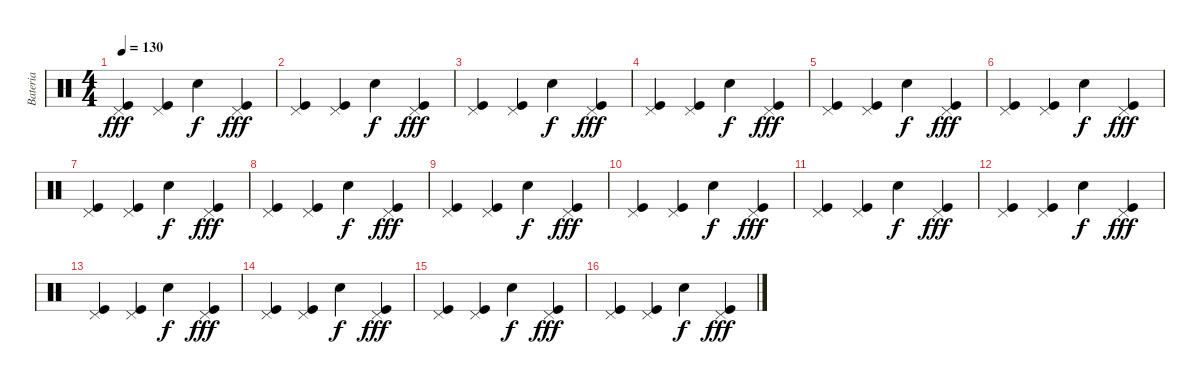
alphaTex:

\track ("Bateria" "Bateria") {instrument percussion}
\staff {score}
\articulation defaults
\ts (4 4)
\tempo 130
\clef neutral
\ks c
("Pedal Hi-Hat (hit)" "Kick (hit)").4{dy fff} ("Pedal Hi-Hat (hit)" "Kick (hit)").4 "Snare (hit) 2".4{dy f} ("Pedal Hi-Hat (hit)" "Kick (hit)").4{dy fff} |
("Pedal Hi-Hat (hit)" "Kick (hit)").4 ("Pedal Hi-Hat (hit)" "Kick (hit)").4 "Snare (hit) 2".4{dy f} ("Pedal Hi-Hat (hit)" "Kick (hit)").4{dy fff} |
("Pedal Hi-Hat (hit)" "Kick (hit)").4 ("Pedal Hi-Hat (hit)" "Kick (hit)").4 "Snare (hit) 2".4{dy f} ("Pedal Hi-Hat (hit)" "Kick (hit)").4{dy fff} |
("Pedal Hi-Hat (hit)" "Kick (hit)").4 ("Pedal Hi-Hat (hit)" "Kick (hit)").4 "Snare (hit) 2".4{dy f} ("Pedal Hi-Hat (hit)" "Kick (hit)").4{dy fff} |
("Pedal Hi-Hat (hit)" "Kick (hit)").4 ("Pedal Hi-Hat (hit)" "Kick (hit)").4 "Snare (hit) 2".4{dy f} ("Pedal Hi-Hat (hit)" "Kick (hit)").4{dy fff} |
("Pedal Hi-Hat (hit)" "Kick (hit)").4 ("Pedal Hi-Hat (hit)" "Kick (hit)").4 "Snare (hit) 2".4{dy f} ("Pedal Hi-Hat (hit)" "Kick (hit)").4{dy fff} |
("Pedal Hi-Hat (hit)" "Kick (hit)").4 ("Pedal Hi-Hat (hit)" "Kick (hit)").4 "Snare (hit) 2".4{dy f} ("Pedal Hi-Hat (hit)" "Kick (hit)").4{dy fff} |
("Pedal Hi-Hat (hit)" "Kick (hit)").4 ("Pedal Hi-Hat (hit)" "Kick (hit)").4 "Snare (hit) 2".4{dy f} ("Pedal Hi-Hat (hit)" "Kick (hit)").4{dy fff} |
("Pedal Hi-Hat (hit)" "Kick (hit)").4 ("Pedal Hi-Hat (hit)" "Kick (hit)").4 "Snare (hit) 2".4{dy f} ("Pedal Hi-Hat (hit)" "Kick (hit)").4{dy fff} |
("Pedal Hi-Hat (hit)" "Kick (hit)").4 ("Pedal Hi-Hat (hit)" "Kick (hit)").4 "Snare (hit) 2".4{dy f} ("Pedal Hi-Hat (hit)" "Kick (hit)").4{dy fff} |
("Pedal Hi-Hat (hit)" "Kick (hit)").4 ("Pedal Hi-Hat (hit)" "Kick (hit)").4 "Snare (hit) 2".4{dy f} ("Pedal Hi-Hat (hit)" "Kick (hit)").4{dy fff} |
("Pedal Hi-Hat (hit)" "Kick (hit)").4 ("Pedal Hi-Hat (hit)" "Kick (hit)").4 "Snare (hit) 2".4{dy f} ("Pedal Hi-Hat (hit)" "Kick (hit)").4{dy fff} |
("Pedal Hi-Hat (hit)" "Kick (hit)").4 ("Pedal Hi-Hat (hit)" "Kick (hit)").4 "Snare (hit) 2".4{dy f} ("Pedal Hi-Hat (hit)" "Kick (hit)").4{dy fff} |
("Pedal Hi-Hat (hit)" "Kick (hit)").4 ("Pedal Hi-Hat (hit)" "Kick (hit)").4 "Snare (hit) 2".4{dy f} ("Pedal Hi-Hat (hit)" "Kick (hit)").4{dy fff} |
("Pedal Hi-Hat (hit)" "Kick (hit)").4 ("Pedal Hi-Hat (hit)" "Kick (hit)").4 "Snare (hit) 2".4{dy f} ("Pedal Hi-Hat (hit)" "Kick (hit)").4{dy fff} |
("Pedal Hi-Hat (hit)" "Kick (hit)").4 ("Pedal Hi-Hat (hit)" "Kick (hit)").4 "Snare (hit) 2".4{dy f} ("Pedal Hi-Hat (hit)" "Kick (hit)").4{dy fff}
